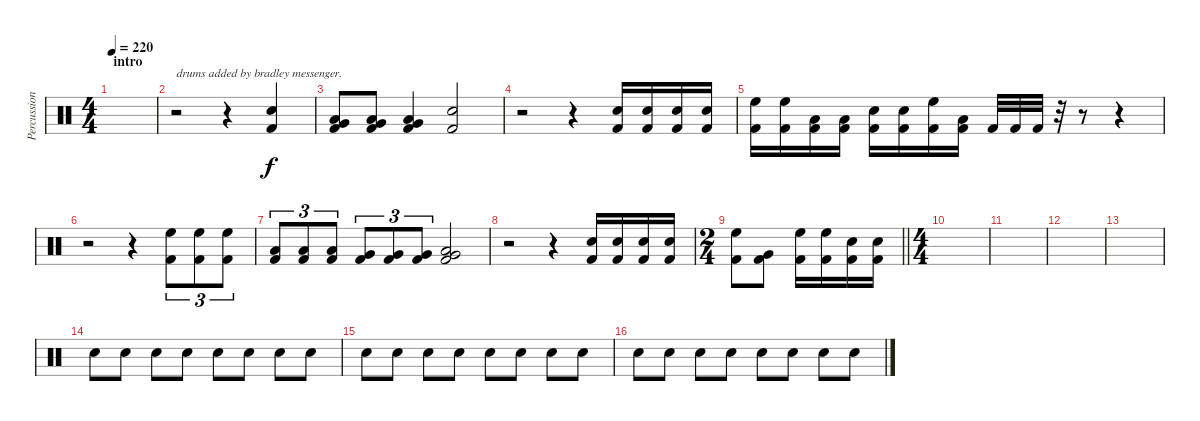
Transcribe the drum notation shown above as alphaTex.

\track ("Percussion" "Percussion") {instrument percussion}
\staff {score}
\articulation defaults
\ts (4 4)
\section ("" "intro")
\tempo 220
\clef neutral
\ks c
|
r.2{txt "drums added by bradley messenger."} r.4 ("Electric Snare (hit)" "Kick (hit) 2").4 |
("Very Low Tom (hit)" "Low Floor Tom (hit)" "Kick (hit) 2").8 ("Very Low Tom (hit)" "Low Floor Tom (hit)" "Kick (hit) 2").8 ("Very Low Tom (hit)" "Low Floor Tom (hit)" "Kick (hit) 2").4 ("Electric Snare (hit)" "Kick (hit) 2").2 |
r.2 r.4 ("Electric Snare (hit)" "Kick (hit) 2").16 ("Electric Snare (hit)" "Kick (hit) 2").16 ("Electric Snare (hit)" "Kick (hit) 2").16 ("Electric Snare (hit)" "Kick (hit) 2").16 |
("High Floor Tom (hit)" "Kick (hit) 2").16 ("High Floor Tom (hit)" "Kick (hit) 2").16 ("Low Tom (hit)" "Kick (hit) 2").16 ("Low Tom (hit)" "Kick (hit) 2").16 ("Electric Snare (hit)" "Kick (hit) 2").16 ("Electric Snare (hit)" "Kick (hit) 2").16 ("High Floor Tom (hit)" "Kick (hit) 2").16 ("Low Tom (hit)" "Kick (hit) 2").16 "Kick (hit) 2".32 "Kick (hit) 2".32 "Kick (hit) 2".32 r.32 r.8 r.4 |
r.2 r.4 ("High Floor Tom (hit)" "Kick (hit) 2").8{tu (3 2)} ("High Floor Tom (hit)" "Kick (hit) 2").8{tu (3 2)} ("High Floor Tom (hit)" "Kick (hit) 2").8{tu (3 2)} |
("Low Tom (hit)" "Kick (hit) 2").8{tu (3 2)} ("Low Tom (hit)" "Kick (hit) 2").8{tu (3 2)} ("Low Tom (hit)" "Kick (hit) 2").8{tu (3 2)} ("Very Low Tom (hit)" "Kick (hit) 2").8{tu (3 2)} ("Very Low Tom (hit)" "Kick (hit) 2").8{tu (3 2)} ("Very Low Tom (hit)" "Kick (hit) 2").8{tu (3 2)} ("Very Low Tom (hit)" "Low Floor Tom (hit)" "Kick (hit) 2").2 |
r.2 r.4 ("Electric Snare (hit)" "Kick (hit) 2").16 ("Electric Snare (hit)" "Kick (hit) 2").16 ("Electric Snare (hit)" "Kick (hit) 2").16 ("Electric Snare (hit)" "Kick (hit) 2").16 |
\ts (2 4)
\barLineRight lightlight
("High Floor Tom (hit)" "Kick (hit) 2").8 ("Very Low Tom (hit)" "Kick (hit) 2").8 ("High Floor Tom (hit)" "Kick (hit) 2").16 ("High Floor Tom (hit)" "Kick (hit) 2").16 ("Electric Snare (hit)" "Kick (hit) 2").16 ("Electric Snare (hit)" "Kick (hit) 2").16 |
\ts (4 4)
\section ("" "")
|
|
|
|
"Electric Snare (hit)".8{volume 13} "Electric Snare (hit)".8 "Electric Snare (hit)".8 "Electric Snare (hit)".8 "Electric Snare (hit)".8 "Electric Snare (hit)".8 "Electric Snare (hit)".8 "Electric Snare (hit)".8 |
"Electric Snare (hit)".8 "Electric Snare (hit)".8 "Electric Snare (hit)".8 "Electric Snare (hit)".8 "Electric Snare (hit)".8 "Electric Snare (hit)".8 "Electric Snare (hit)".8 "Electric Snare (hit)".8 |
"Electric Snare (hit)".8 "Electric Snare (hit)".8 "Electric Snare (hit)".8 "Electric Snare (hit)".8 "Electric Snare (hit)".8 "Electric Snare (hit)".8 "Electric Snare (hit)".8 "Electric Snare (hit)".8
